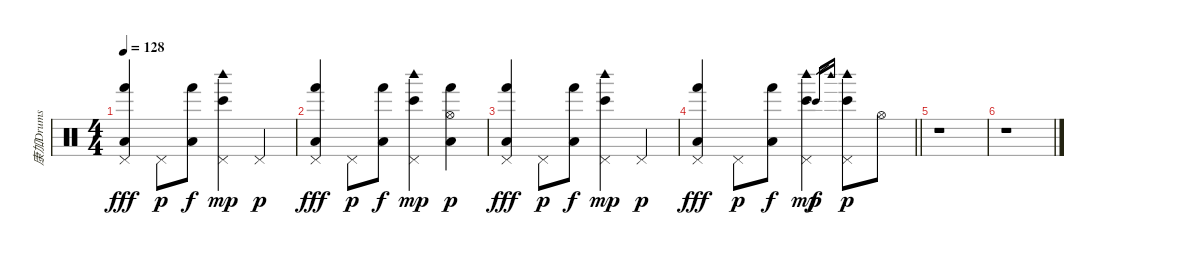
\track ("康加Drums" "康加Drums") {instrument percussion}
\staff {score}
\articulation defaults
\ts (4 4)
\tempo 128
\clef neutral
\ks c
("Pedal Hi-Hat (hit)" "Hand (hit)" "Low Floor Tom (hit)").4{dy fff} "Pedal Hi-Hat (hit)".8{dy p} ("Hand (hit)" "Low Floor Tom (hit)").8{dy f} ("Bongo High (hit)" "Woodblock high (hit)" "Pedal Hi-Hat (hit)").4{dy mp} "Pedal Hi-Hat (hit)".4{dy p} |
("Pedal Hi-Hat (hit)" "Hand (hit)" "Low Floor Tom (hit)").4{dy fff} "Pedal Hi-Hat (hit)".8{dy p} ("Hand (hit)" "Low Floor Tom (hit)").8{dy f} ("Bongo High (hit)" "Woodblock high (hit)" "Pedal Hi-Hat (hit)").4{dy mp} ("Hi-Hat (open)" "Hand (hit)" "Low Floor Tom (hit)").4{dy p} |
("Pedal Hi-Hat (hit)" "Hand (hit)" "Low Floor Tom (hit)").4{dy fff} "Pedal Hi-Hat (hit)".8{dy p} ("Hand (hit)" "Low Floor Tom (hit)").8{dy f} ("Bongo High (hit)" "Woodblock high (hit)" "Pedal Hi-Hat (hit)").4{dy mp} "Pedal Hi-Hat (hit)".4{dy p} |
\barLineRight lightlight
("Pedal Hi-Hat (hit)" "Hand (hit)" "Low Floor Tom (hit)").4{dy fff} "Pedal Hi-Hat (hit)".8{dy p} ("Hand (hit)" "Low Floor Tom (hit)").8{dy f} ("Bongo High (hit)" "Woodblock high (hit)" "Pedal Hi-Hat (hit)").4{dy mp} "Bongo High (hit)".16{gr dy f} "Woodblock high (hit)".16{gr} ("Bongo High (hit)" "Woodblock high (hit)" "Pedal Hi-Hat (hit)").8{dy p} "Hi-Hat (open)".8 |
r.1 |
r.1
